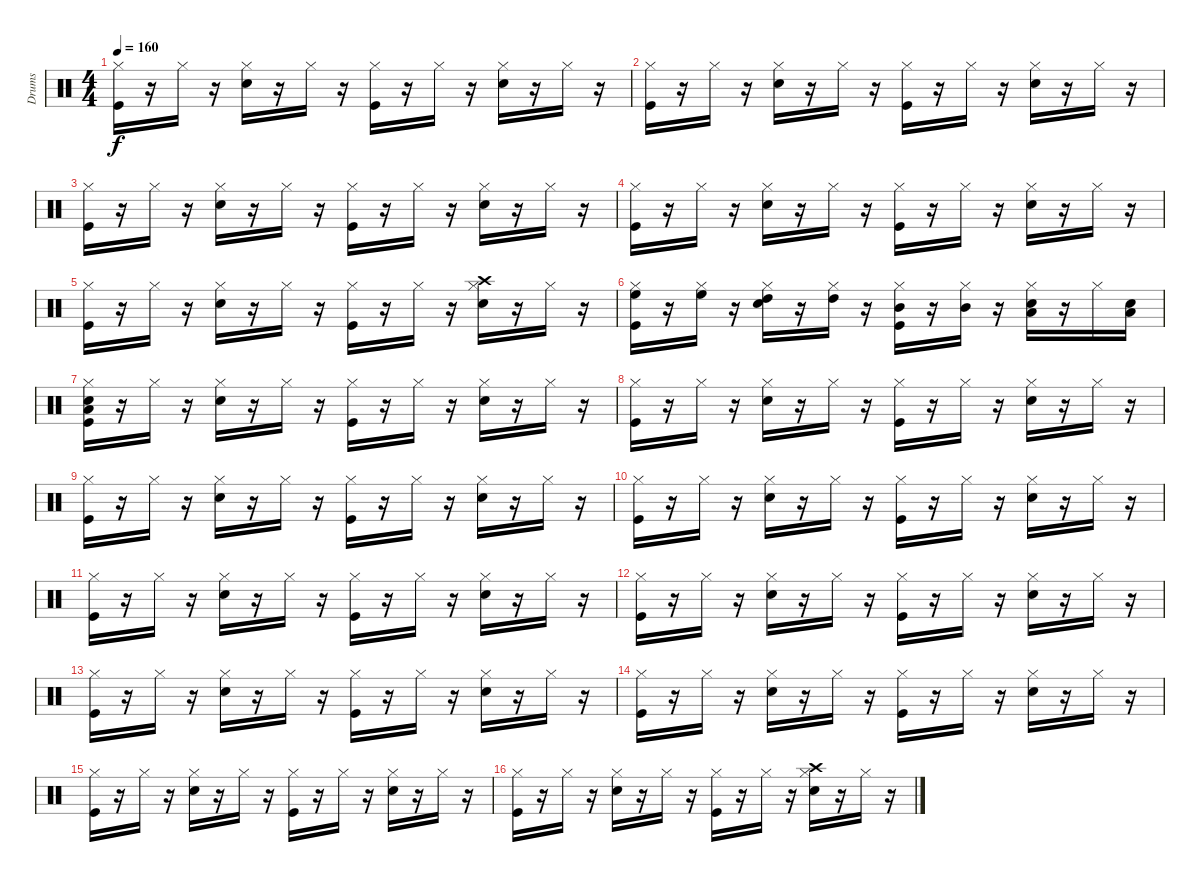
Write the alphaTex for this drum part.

\track ("Drums               " "Drums     ") {instrument percussion}
\staff {score}
\articulation defaults
\ts (4 4)
\tempo 160
\clef neutral
\ks c
("Kick (hit)" "Hi-Hat (closed)").16{dy f} r.16 "Hi-Hat (closed)".16 r.16 ("Snare (hit) 2" "Hi-Hat (closed)").16 r.16 "Hi-Hat (closed)".16 r.16 ("Kick (hit)" "Hi-Hat (closed)").16 r.16 "Hi-Hat (closed)".16 r.16 ("Snare (hit) 2" "Hi-Hat (closed)").16 r.16 "Hi-Hat (closed)".16 r.16 |
("Kick (hit)" "Hi-Hat (closed)").16 r.16 "Hi-Hat (closed)".16 r.16 ("Snare (hit) 2" "Hi-Hat (closed)").16 r.16 "Hi-Hat (closed)".16 r.16 ("Kick (hit)" "Hi-Hat (closed)").16 r.16 "Hi-Hat (closed)".16 r.16 ("Snare (hit) 2" "Hi-Hat (closed)").16 r.16 "Hi-Hat (closed)".16 r.16 |
("Kick (hit)" "Hi-Hat (closed)").16 r.16 "Hi-Hat (closed)".16 r.16 ("Snare (hit) 2" "Hi-Hat (closed)").16 r.16 "Hi-Hat (closed)".16 r.16 ("Kick (hit)" "Hi-Hat (closed)").16 r.16 "Hi-Hat (closed)".16 r.16 ("Snare (hit) 2" "Hi-Hat (closed)").16 r.16 "Hi-Hat (closed)".16 r.16 |
("Kick (hit)" "Hi-Hat (closed)").16 r.16 "Hi-Hat (closed)".16 r.16 ("Snare (hit) 2" "Hi-Hat (closed)").16 r.16 "Hi-Hat (closed)".16 r.16 ("Kick (hit)" "Hi-Hat (closed)").16 r.16 "Hi-Hat (closed)".16 r.16 ("Snare (hit) 2" "Hi-Hat (closed)").16 r.16 "Hi-Hat (closed)".16 r.16 |
("Kick (hit)" "Hi-Hat (closed)").16 r.16 "Hi-Hat (closed)".16 r.16 ("Snare (hit) 2" "Hi-Hat (closed)").16 r.16 "Hi-Hat (closed)".16 r.16 ("Kick (hit)" "Hi-Hat (closed)").16 r.16 "Hi-Hat (closed)".16 r.16 ("Snare (hit) 2" "Hi-Hat (closed)" "Crash high (hit)").16 r.16 "Hi-Hat (closed)".16 r.16 |
("Kick (hit)" "Hi-Hat (closed)" "High Floor Tom (hit)").16 r.16 ("Hi-Hat (closed)" "High Floor Tom (hit)").16 r.16 ("Snare (hit) 2" "Hi-Hat (closed)" "High Tom (hit)").16 r.16 ("Hi-Hat (closed)" "High Tom (hit)").16 r.16 ("Kick (hit)" "Hi-Hat (closed)" "Mid Tom (hit)").16 r.16 ("Hi-Hat (closed)" "Mid Tom (hit)").16 r.16 ("Snare (hit) 2" "Hi-Hat (closed)" "Low Tom (hit)").16 r.16 "Hi-Hat (closed)".16 ("Snare (hit)" "Low Tom (hit)").16 |
("Snare (hit)" "Kick (hit)" "Hi-Hat (closed)" "Low Tom (hit)").16 r.16 "Hi-Hat (closed)".16 r.16 ("Snare (hit) 2" "Hi-Hat (closed)").16 r.16 "Hi-Hat (closed)".16 r.16 ("Kick (hit)" "Hi-Hat (closed)").16 r.16 "Hi-Hat (closed)".16 r.16 ("Snare (hit) 2" "Hi-Hat (closed)").16 r.16 "Hi-Hat (closed)".16 r.16 |
("Kick (hit)" "Hi-Hat (closed)").16 r.16 "Hi-Hat (closed)".16 r.16 ("Snare (hit) 2" "Hi-Hat (closed)").16 r.16 "Hi-Hat (closed)".16 r.16 ("Kick (hit)" "Hi-Hat (closed)").16 r.16 "Hi-Hat (closed)".16 r.16 ("Snare (hit) 2" "Hi-Hat (closed)").16 r.16 "Hi-Hat (closed)".16 r.16 |
("Kick (hit)" "Hi-Hat (closed)").16 r.16 "Hi-Hat (closed)".16 r.16 ("Snare (hit) 2" "Hi-Hat (closed)").16 r.16 "Hi-Hat (closed)".16 r.16 ("Kick (hit)" "Hi-Hat (closed)").16 r.16 "Hi-Hat (closed)".16 r.16 ("Snare (hit) 2" "Hi-Hat (closed)").16 r.16 "Hi-Hat (closed)".16 r.16 |
("Kick (hit)" "Hi-Hat (closed)").16 r.16 "Hi-Hat (closed)".16 r.16 ("Snare (hit) 2" "Hi-Hat (closed)").16 r.16 "Hi-Hat (closed)".16 r.16 ("Kick (hit)" "Hi-Hat (closed)").16 r.16 "Hi-Hat (closed)".16 r.16 ("Snare (hit) 2" "Hi-Hat (closed)").16 r.16 "Hi-Hat (closed)".16 r.16 |
("Kick (hit)" "Hi-Hat (closed)").16 r.16 "Hi-Hat (closed)".16 r.16 ("Snare (hit) 2" "Hi-Hat (closed)").16 r.16 "Hi-Hat (closed)".16 r.16 ("Kick (hit)" "Hi-Hat (closed)").16 r.16 "Hi-Hat (closed)".16 r.16 ("Snare (hit) 2" "Hi-Hat (closed)").16 r.16 "Hi-Hat (closed)".16 r.16 |
("Kick (hit)" "Hi-Hat (closed)").16 r.16 "Hi-Hat (closed)".16 r.16 ("Snare (hit) 2" "Hi-Hat (closed)").16 r.16 "Hi-Hat (closed)".16 r.16 ("Kick (hit)" "Hi-Hat (closed)").16 r.16 "Hi-Hat (closed)".16 r.16 ("Snare (hit) 2" "Hi-Hat (closed)").16 r.16 "Hi-Hat (closed)".16 r.16 |
("Kick (hit)" "Hi-Hat (closed)").16 r.16 "Hi-Hat (closed)".16 r.16 ("Snare (hit) 2" "Hi-Hat (closed)").16 r.16 "Hi-Hat (closed)".16 r.16 ("Kick (hit)" "Hi-Hat (closed)").16 r.16 "Hi-Hat (closed)".16 r.16 ("Snare (hit) 2" "Hi-Hat (closed)").16 r.16 "Hi-Hat (closed)".16 r.16 |
("Kick (hit)" "Hi-Hat (closed)").16 r.16 "Hi-Hat (closed)".16 r.16 ("Snare (hit) 2" "Hi-Hat (closed)").16 r.16 "Hi-Hat (closed)".16 r.16 ("Kick (hit)" "Hi-Hat (closed)").16 r.16 "Hi-Hat (closed)".16 r.16 ("Snare (hit) 2" "Hi-Hat (closed)").16 r.16 "Hi-Hat (closed)".16 r.16 |
("Kick (hit)" "Hi-Hat (closed)").16 r.16 "Hi-Hat (closed)".16 r.16 ("Snare (hit) 2" "Hi-Hat (closed)").16 r.16 "Hi-Hat (closed)".16 r.16 ("Kick (hit)" "Hi-Hat (closed)").16 r.16 "Hi-Hat (closed)".16 r.16 ("Snare (hit) 2" "Hi-Hat (closed)").16 r.16 "Hi-Hat (closed)".16 r.16 |
("Kick (hit)" "Hi-Hat (closed)").16 r.16 "Hi-Hat (closed)".16 r.16 ("Snare (hit) 2" "Hi-Hat (closed)").16 r.16 "Hi-Hat (closed)".16 r.16 ("Kick (hit)" "Hi-Hat (closed)").16 r.16 "Hi-Hat (closed)".16 r.16 ("Snare (hit) 2" "Hi-Hat (closed)" "Crash high (hit)").16 r.16 "Hi-Hat (closed)".16 r.16
